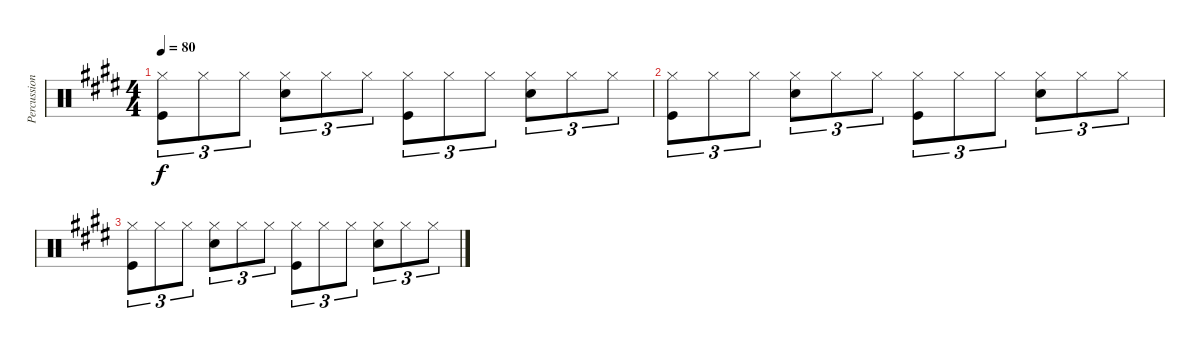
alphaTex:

\track ("Percussion" "Percussion") {instrument percussion}
\staff {score}
\articulation defaults
\ts (4 4)
\tempo 80
\clef neutral
\ks e
("Hi-Hat (closed)" "Kick (hit)").8{tu (3 2) dy f} "Hi-Hat (closed)".8{tu (3 2)} "Hi-Hat (closed)".8{tu (3 2)} ("Hi-Hat (closed)" "Snare (hit) 2").8{tu (3 2)} "Hi-Hat (closed)".8{tu (3 2)} "Hi-Hat (closed)".8{tu (3 2)} ("Hi-Hat (closed)" "Kick (hit)").8{tu (3 2)} "Hi-Hat (closed)".8{tu (3 2)} "Hi-Hat (closed)".8{tu (3 2)} ("Hi-Hat (closed)" "Snare (hit) 2").8{tu (3 2)} "Hi-Hat (closed)".8{tu (3 2)} "Hi-Hat (closed)".8{tu (3 2)} |
("Hi-Hat (closed)" "Kick (hit)").8{tu (3 2)} "Hi-Hat (closed)".8{tu (3 2)} "Hi-Hat (closed)".8{tu (3 2)} ("Hi-Hat (closed)" "Snare (hit) 2").8{tu (3 2)} "Hi-Hat (closed)".8{tu (3 2)} "Hi-Hat (closed)".8{tu (3 2)} ("Hi-Hat (closed)" "Kick (hit)").8{tu (3 2)} "Hi-Hat (closed)".8{tu (3 2)} "Hi-Hat (closed)".8{tu (3 2)} ("Hi-Hat (closed)" "Snare (hit) 2").8{tu (3 2)} "Hi-Hat (closed)".8{tu (3 2)} "Hi-Hat (closed)".8{tu (3 2)} |
("Hi-Hat (closed)" "Kick (hit)").8{tu (3 2)} "Hi-Hat (closed)".8{tu (3 2)} "Hi-Hat (closed)".8{tu (3 2)} ("Hi-Hat (closed)" "Snare (hit) 2").8{tu (3 2)} "Hi-Hat (closed)".8{tu (3 2)} "Hi-Hat (closed)".8{tu (3 2)} ("Hi-Hat (closed)" "Kick (hit)").8{tu (3 2)} "Hi-Hat (closed)".8{tu (3 2)} "Hi-Hat (closed)".8{tu (3 2)} ("Hi-Hat (closed)" "Snare (hit) 2").8{tu (3 2)} "Hi-Hat (closed)".8{tu (3 2)} "Hi-Hat (closed)".8{tu (3 2)}
